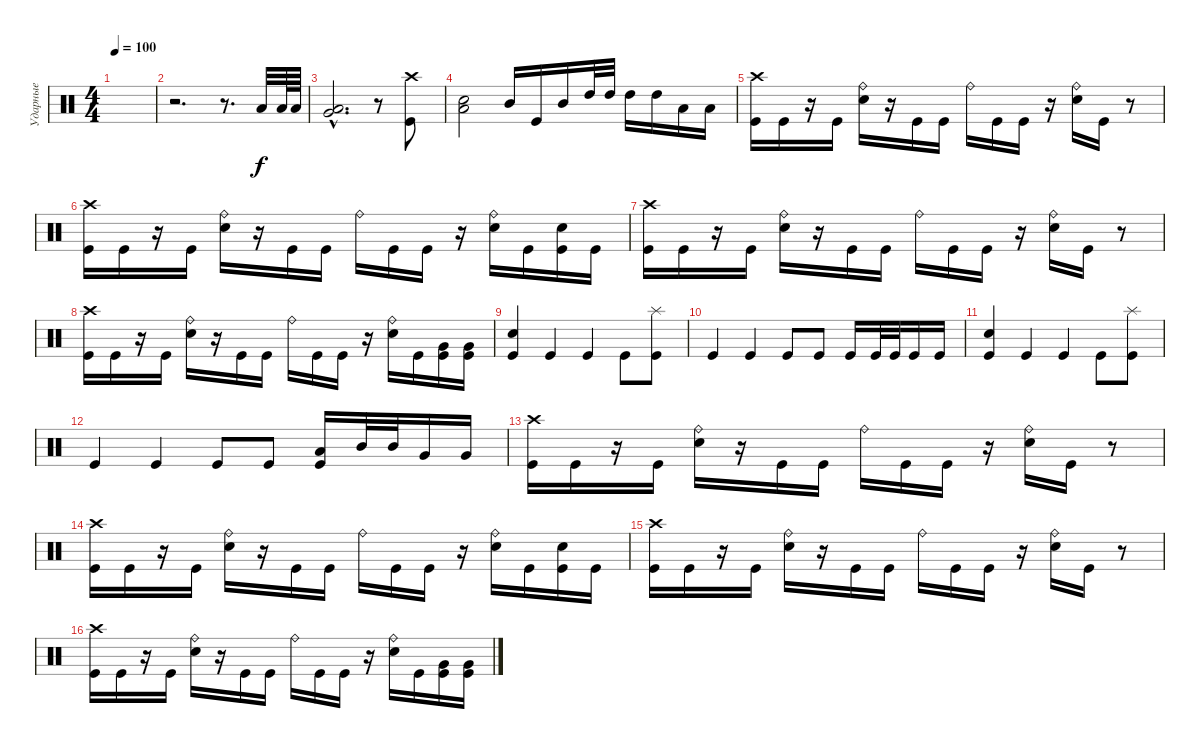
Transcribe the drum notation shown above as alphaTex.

\track ("Ударные" "Ударные") {instrument percussion}
\staff {score}
\articulation defaults
\ts (4 4)
\tempo 100
\clef neutral
\ks c
|
r.2{d} r.8{d} "Low Tom (hit)".32 "Low Tom (hit)".64 "Low Tom (hit)".64 |
("Low Tom (hit)"{hac} "Very Low Tom (hit)"{hac}).2{d} r.8 ("Crash high (hit)" "Kick (hit)").8 |
("Electric Snare (hit)" "Low Tom (hit)").2 "Mid Tom (hit)".16 "Kick (hit)".16 "Mid Tom (hit)".16 "High Tom (hit)".32 "High Tom (hit)".32 "High Tom (hit)".16 "High Tom (hit)".16 "Low Tom (hit)".16 "Low Tom (hit)".16 |
("Crash high (hit)" "Kick (hit)").16 "Kick (hit)".16 r.16 "Kick (hit)".16 ("Ride (bell)" "Electric Snare (hit)").16 r.16 "Kick (hit)".16 "Kick (hit)".16 "Ride (bell)".16 "Kick (hit)".16 "Kick (hit)".16 r.16 ("Ride (bell)" "Electric Snare (hit)").16 "Kick (hit)".16 r.8 |
("Crash high (hit)" "Kick (hit)").16 "Kick (hit)".16 r.16 "Kick (hit)".16 ("Ride (bell)" "Electric Snare (hit)").16 r.16 "Kick (hit)".16 "Kick (hit)".16 "Ride (bell)".16 "Kick (hit)".16 "Kick (hit)".16 r.16 ("Ride (bell)" "Electric Snare (hit)").16 "Kick (hit)".16 ("Electric Snare (hit)" "Kick (hit)").16 "Kick (hit)".16 |
("Crash high (hit)" "Kick (hit)").16 "Kick (hit)".16 r.16 "Kick (hit)".16 ("Ride (bell)" "Electric Snare (hit)").16 r.16 "Kick (hit)".16 "Kick (hit)".16 "Ride (bell)".16 "Kick (hit)".16 "Kick (hit)".16 r.16 ("Ride (bell)" "Electric Snare (hit)").16 "Kick (hit)".16 r.8 |
("Crash high (hit)" "Kick (hit)").16 "Kick (hit)".16 r.16 "Kick (hit)".16 ("Ride (bell)" "Electric Snare (hit)").16 r.16 "Kick (hit)".16 "Kick (hit)".16 "Ride (bell)".16 "Kick (hit)".16 "Kick (hit)".16 r.16 ("Ride (bell)" "Electric Snare (hit)").16 "Kick (hit)".16 ("Very Low Tom (hit)" "Kick (hit)").16 ("Very Low Tom (hit)" "Kick (hit)").16 |
("Electric Snare (hit)" "Kick (hit)").4 "Kick (hit)".4 "Kick (hit)".4 "Kick (hit)".8 ("Splash (hit)" "Kick (hit)").8 |
"Kick (hit)".4 "Kick (hit)".4 "Kick (hit)".8 "Kick (hit)".8 "Kick (hit)".16 "Kick (hit)".32 "Kick (hit)".32 "Kick (hit)".16 "Kick (hit)".16 |
("Electric Snare (hit)" "Kick (hit)").4 "Kick (hit)".4 "Kick (hit)".4 "Kick (hit)".8 ("Splash (hit)" "Kick (hit)").8 |
"Kick (hit)".4 "Kick (hit)".4 "Kick (hit)".8 "Kick (hit)".8 ("Low Tom (hit)" "Kick (hit)").16 "Mid Tom (hit)".32 "Mid Tom (hit)".32 "Very Low Tom (hit)".16 "Very Low Tom (hit)".16 |
("Crash high (hit)" "Kick (hit)").16 "Kick (hit)".16 r.16 "Kick (hit)".16 ("Ride (bell)" "Electric Snare (hit)").16 r.16 "Kick (hit)".16 "Kick (hit)".16 "Ride (bell)".16 "Kick (hit)".16 "Kick (hit)".16 r.16 ("Ride (bell)" "Electric Snare (hit)").16 "Kick (hit)".16 r.8 |
("Crash high (hit)" "Kick (hit)").16 "Kick (hit)".16 r.16 "Kick (hit)".16 ("Ride (bell)" "Electric Snare (hit)").16 r.16 "Kick (hit)".16 "Kick (hit)".16 "Ride (bell)".16 "Kick (hit)".16 "Kick (hit)".16 r.16 ("Ride (bell)" "Electric Snare (hit)").16 "Kick (hit)".16 ("Electric Snare (hit)" "Kick (hit)").16 "Kick (hit)".16 |
("Crash high (hit)" "Kick (hit)").16 "Kick (hit)".16 r.16 "Kick (hit)".16 ("Ride (bell)" "Electric Snare (hit)").16 r.16 "Kick (hit)".16 "Kick (hit)".16 "Ride (bell)".16 "Kick (hit)".16 "Kick (hit)".16 r.16 ("Ride (bell)" "Electric Snare (hit)").16 "Kick (hit)".16 r.8 |
("Crash high (hit)" "Kick (hit)").16 "Kick (hit)".16 r.16 "Kick (hit)".16 ("Ride (bell)" "Electric Snare (hit)").16 r.16 "Kick (hit)".16 "Kick (hit)".16 "Ride (bell)".16 "Kick (hit)".16 "Kick (hit)".16 r.16 ("Ride (bell)" "Electric Snare (hit)").16 "Kick (hit)".16 ("Very Low Tom (hit)" "Kick (hit)").16 ("Very Low Tom (hit)" "Kick (hit)").16
